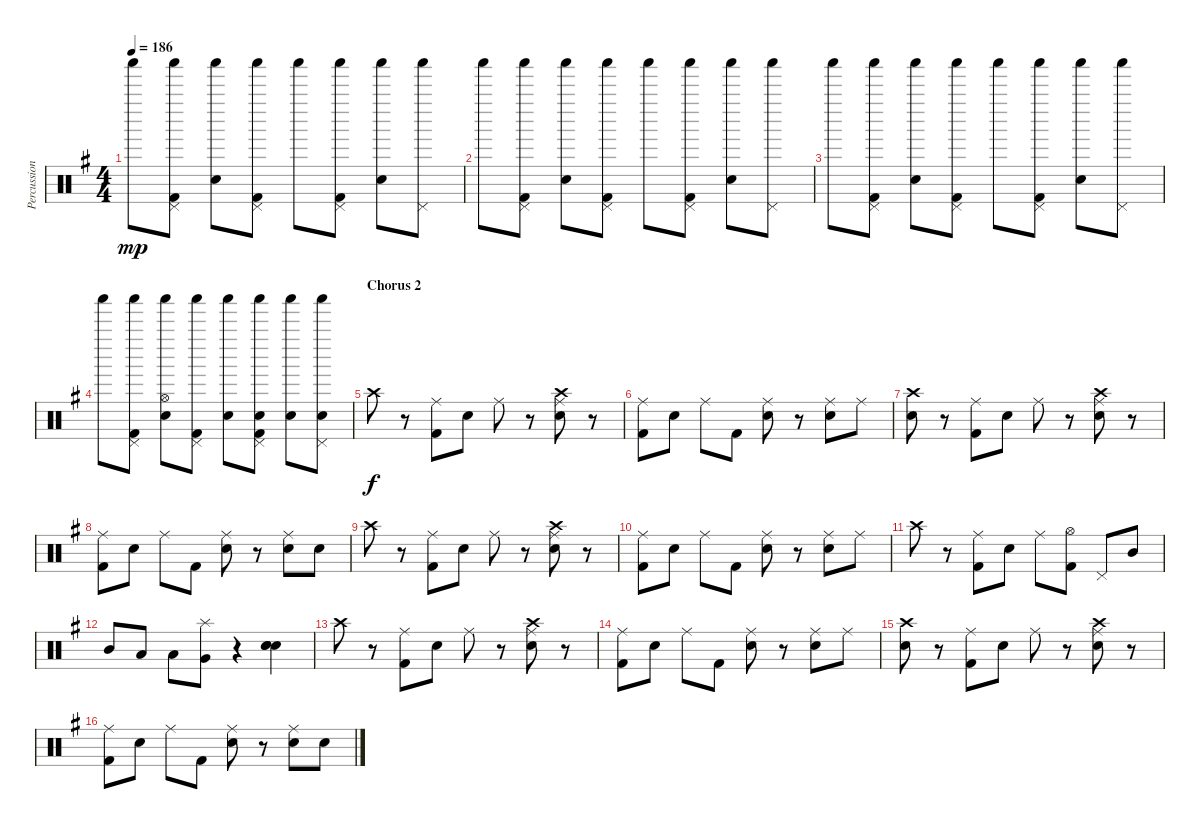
\track ("Percussion" "Percussion") {instrument percussion}
\staff {score}
\articulation defaults
\ts (4 4)
\tempo 186
\clef neutral
\ks g "Shaker (hit)".8{dy mp}
("Shaker (hit)" "Pedal Hi-Hat (hit)" "Kick (hit) 2").8 ("Shaker (hit)" "Electric Snare (hit)").8 ("Shaker (hit)" "Pedal Hi-Hat (hit)" "Kick (hit) 2").8 "Shaker (hit)".8 ("Shaker (hit)" "Pedal Hi-Hat (hit)" "Kick (hit) 2").8 ("Shaker (hit)" "Electric Snare (hit)").8 ("Shaker (hit)" "Pedal Hi-Hat (hit)").8 |
"Shaker (hit)".8 ("Shaker (hit)" "Pedal Hi-Hat (hit)" "Kick (hit) 2").8 ("Shaker (hit)" "Electric Snare (hit)").8 ("Shaker (hit)" "Pedal Hi-Hat (hit)" "Kick (hit) 2").8 "Shaker (hit)".8 ("Shaker (hit)" "Pedal Hi-Hat (hit)" "Kick (hit) 2").8 ("Shaker (hit)" "Electric Snare (hit)").8 ("Shaker (hit)" "Pedal Hi-Hat (hit)").8 |
"Shaker (hit)".8 ("Shaker (hit)" "Pedal Hi-Hat (hit)" "Kick (hit) 2").8 ("Shaker (hit)" "Electric Snare (hit)").8 ("Shaker (hit)" "Pedal Hi-Hat (hit)" "Kick (hit) 2").8 "Shaker (hit)".8 ("Shaker (hit)" "Pedal Hi-Hat (hit)" "Kick (hit) 2").8 ("Shaker (hit)" "Electric Snare (hit)").8 ("Shaker (hit)" "Pedal Hi-Hat (hit)").8 |
"Shaker (hit)".8 ("Shaker (hit)" "Pedal Hi-Hat (hit)" "Kick (hit) 2").8 ("Shaker (hit)" "Hi-Hat (open)" "Electric Snare (hit)").8 ("Shaker (hit)" "Pedal Hi-Hat (hit)" "Kick (hit) 2").8 ("Shaker (hit)" "Electric Snare (hit)").8 ("Shaker (hit)" "Pedal Hi-Hat (hit)" "Electric Snare (hit)" "Kick (hit) 2").8 ("Shaker (hit)" "Electric Snare (hit)").8 ("Shaker (hit)" "Pedal Hi-Hat (hit)" "Electric Snare (hit)").8 |
\section ("" "Chorus 2")
"Crash high (hit)".8{dy f} r.8 ("Ride (middle)" "Kick (hit) 2").8 "Electric Snare (hit)".8 "Ride (middle)".8 r.8 ("Ride (middle)" "Crash high (hit)" "Electric Snare (hit)").8 r.8 |
("Ride (middle)" "Kick (hit) 2").8 "Electric Snare (hit)".8 "Ride (middle)".8 "Kick (hit) 2".8 ("Ride (middle)" "Electric Snare (hit)").8 r.8 ("Ride (middle)" "Electric Snare (hit)").8 "Ride (middle)".8 |
("Crash high (hit)" "Electric Snare (hit)").8 r.8 ("Ride (middle)" "Kick (hit) 2").8 "Electric Snare (hit)".8 "Ride (middle)".8 r.8 ("Ride (middle)" "Crash high (hit)" "Electric Snare (hit)").8 r.8 |
("Ride (middle)" "Kick (hit) 2").8 "Electric Snare (hit)".8 "Ride (middle)".8 "Kick (hit) 2".8 ("Ride (middle)" "Electric Snare (hit)").8 r.8 ("Ride (middle)" "Electric Snare (hit)").8 "Electric Snare (hit)".8 |
"Crash high (hit)".8 r.8 ("Ride (middle)" "Kick (hit) 2").8 "Electric Snare (hit)".8 "Ride (middle)".8 r.8 ("Ride (middle)" "Crash high (hit)" "Electric Snare (hit)").8 r.8 |
("Ride (middle)" "Kick (hit) 2").8 "Electric Snare (hit)".8 "Ride (middle)".8 "Kick (hit) 2".8 ("Ride (middle)" "Electric Snare (hit)").8 r.8 ("Ride (middle)" "Electric Snare (hit)").8 "Ride (middle)".8 |
"Crash high (hit)".8 r.8 ("Ride (middle)" "Kick (hit) 2").8 "Electric Snare (hit)".8 "Ride (middle)".8 ("Hi-Hat (open)" "Kick (hit) 2").8 "Pedal Hi-Hat (hit)".8 "Mid Tom (hit)".8 |
"Mid Tom (hit)".8 "Low Tom (hit)".8 "Low Tom (hit)".8 ("Splash (hit)" "Very Low Tom (hit)").8 r.4 ("Hand Clap (hit)" "Hand Clap (hit)" "Hand Clap (hit)").4 |
"Crash high (hit)".8 r.8 ("Ride (middle)" "Kick (hit) 2").8 "Electric Snare (hit)".8 "Ride (middle)".8 r.8 ("Ride (middle)" "Crash high (hit)" "Electric Snare (hit)").8 r.8 |
("Ride (middle)" "Kick (hit) 2").8 "Electric Snare (hit)".8 "Ride (middle)".8 "Kick (hit) 2".8 ("Ride (middle)" "Electric Snare (hit)").8 r.8 ("Ride (middle)" "Electric Snare (hit)").8 "Ride (middle)".8 |
("Crash high (hit)" "Electric Snare (hit)").8 r.8 ("Ride (middle)" "Kick (hit) 2").8 "Electric Snare (hit)".8 "Ride (middle)".8 r.8 ("Ride (middle)" "Crash high (hit)" "Electric Snare (hit)").8 r.8 |
("Ride (middle)" "Kick (hit) 2").8 "Electric Snare (hit)".8 "Ride (middle)".8 "Kick (hit) 2".8 ("Ride (middle)" "Electric Snare (hit)").8 r.8 ("Ride (middle)" "Electric Snare (hit)").8 "Electric Snare (hit)".8
